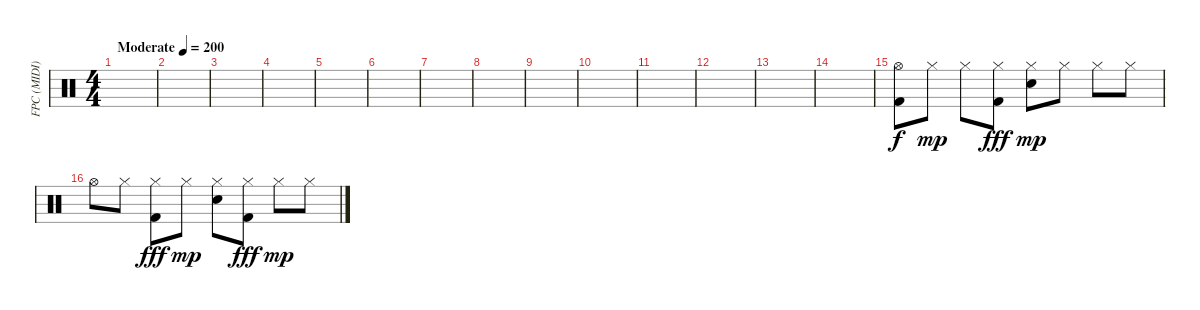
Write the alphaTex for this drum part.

\track ("FPC (MIDI)" "FPC (MIDI)") {instrument percussion}
\staff {score}
\articulation defaults
\ts (4 4)
\tempo (200 "Moderate")
\clef neutral
\ks c
|
|
|
|
|
|
|
|
|
|
|
|
|
|
("Hi-Hat (open)" "Kick (hit) 2").8 "Hi-Hat (closed)".8{dy mp} "Hi-Hat (closed)".8 ("Hi-Hat (closed)" "Kick (hit) 2").8{dy fff} ("Hi-Hat (closed)" "Electric Snare (hit)").8{dy mp} "Hi-Hat (closed)".8 "Hi-Hat (closed)".8 "Hi-Hat (closed)".8 |
"Hi-Hat (open)".8 "Hi-Hat (closed)".8 ("Hi-Hat (closed)" "Kick (hit) 2").8{dy fff} "Hi-Hat (closed)".8{dy mp} ("Hi-Hat (closed)" "Electric Snare (hit)").8 ("Hi-Hat (closed)" "Kick (hit) 2").8{dy fff} "Hi-Hat (closed)".8{dy mp} "Hi-Hat (closed)".8
